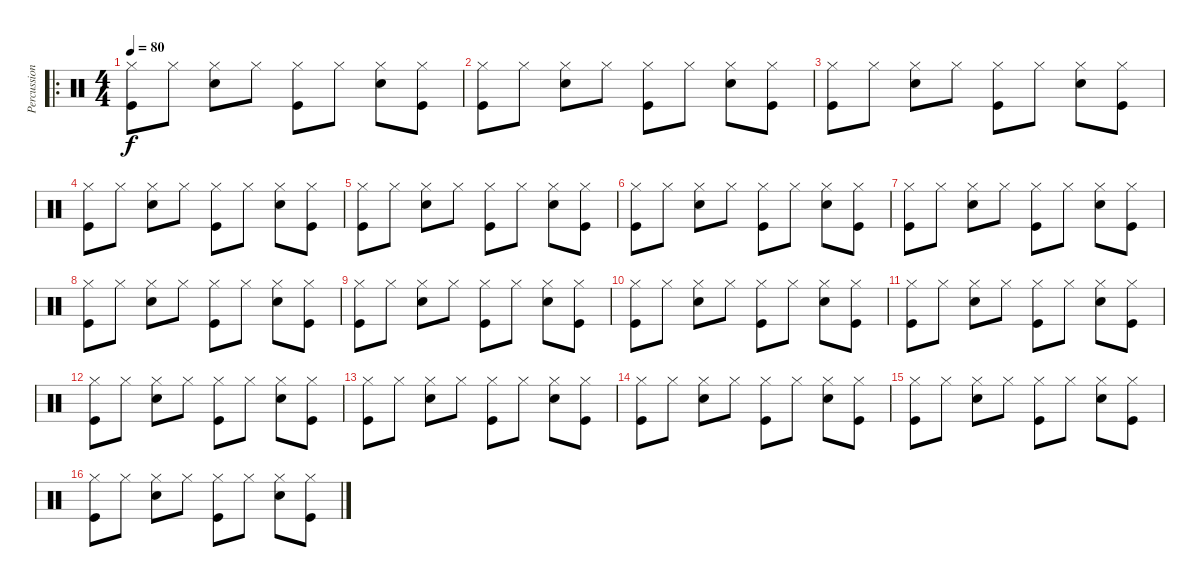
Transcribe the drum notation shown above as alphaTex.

\track ("Percussions" "Percussion") {instrument percussion}
\staff {score}
\articulation defaults
\ro
\ts (4 4)
\tempo 80
\clef neutral
\ks c
("Hi-Hat (closed)" "Kick (hit)").8{dy f} "Hi-Hat (closed)".8 ("Hi-Hat (closed)" "Snare (hit) 2").8 "Hi-Hat (closed)".8 ("Hi-Hat (closed)" "Kick (hit)").8 "Hi-Hat (closed)".8 ("Hi-Hat (closed)" "Snare (hit) 2").8 ("Hi-Hat (closed)" "Kick (hit)").8 |
("Hi-Hat (closed)" "Kick (hit)").8 "Hi-Hat (closed)".8 ("Hi-Hat (closed)" "Snare (hit) 2").8 "Hi-Hat (closed)".8 ("Hi-Hat (closed)" "Kick (hit)").8 "Hi-Hat (closed)".8 ("Hi-Hat (closed)" "Snare (hit) 2").8 ("Hi-Hat (closed)" "Kick (hit)").8 |
("Hi-Hat (closed)" "Kick (hit)").8 "Hi-Hat (closed)".8 ("Hi-Hat (closed)" "Snare (hit) 2").8 "Hi-Hat (closed)".8 ("Hi-Hat (closed)" "Kick (hit)").8 "Hi-Hat (closed)".8 ("Hi-Hat (closed)" "Snare (hit) 2").8 ("Hi-Hat (closed)" "Kick (hit)").8 |
("Hi-Hat (closed)" "Kick (hit)").8 "Hi-Hat (closed)".8 ("Hi-Hat (closed)" "Snare (hit) 2").8 "Hi-Hat (closed)".8 ("Hi-Hat (closed)" "Kick (hit)").8 "Hi-Hat (closed)".8 ("Hi-Hat (closed)" "Snare (hit) 2").8 ("Hi-Hat (closed)" "Kick (hit)").8 |
("Hi-Hat (closed)" "Kick (hit)").8 "Hi-Hat (closed)".8 ("Hi-Hat (closed)" "Snare (hit) 2").8 "Hi-Hat (closed)".8 ("Hi-Hat (closed)" "Kick (hit)").8 "Hi-Hat (closed)".8 ("Hi-Hat (closed)" "Snare (hit) 2").8 ("Hi-Hat (closed)" "Kick (hit)").8 |
("Hi-Hat (closed)" "Kick (hit)").8 "Hi-Hat (closed)".8 ("Hi-Hat (closed)" "Snare (hit) 2").8 "Hi-Hat (closed)".8 ("Hi-Hat (closed)" "Kick (hit)").8 "Hi-Hat (closed)".8 ("Hi-Hat (closed)" "Snare (hit) 2").8 ("Hi-Hat (closed)" "Kick (hit)").8 |
("Hi-Hat (closed)" "Kick (hit)").8 "Hi-Hat (closed)".8 ("Hi-Hat (closed)" "Snare (hit) 2").8 "Hi-Hat (closed)".8 ("Hi-Hat (closed)" "Kick (hit)").8 "Hi-Hat (closed)".8 ("Hi-Hat (closed)" "Snare (hit) 2").8 ("Hi-Hat (closed)" "Kick (hit)").8 |
("Hi-Hat (closed)" "Kick (hit)").8 "Hi-Hat (closed)".8 ("Hi-Hat (closed)" "Snare (hit) 2").8 "Hi-Hat (closed)".8 ("Hi-Hat (closed)" "Kick (hit)").8 "Hi-Hat (closed)".8 ("Hi-Hat (closed)" "Snare (hit) 2").8 ("Hi-Hat (closed)" "Kick (hit)").8 |
("Hi-Hat (closed)" "Kick (hit)").8 "Hi-Hat (closed)".8 ("Hi-Hat (closed)" "Snare (hit) 2").8 "Hi-Hat (closed)".8 ("Hi-Hat (closed)" "Kick (hit)").8 "Hi-Hat (closed)".8 ("Hi-Hat (closed)" "Snare (hit) 2").8 ("Hi-Hat (closed)" "Kick (hit)").8 |
("Hi-Hat (closed)" "Kick (hit)").8 "Hi-Hat (closed)".8 ("Hi-Hat (closed)" "Snare (hit) 2").8 "Hi-Hat (closed)".8 ("Hi-Hat (closed)" "Kick (hit)").8 "Hi-Hat (closed)".8 ("Hi-Hat (closed)" "Snare (hit) 2").8 ("Hi-Hat (closed)" "Kick (hit)").8 |
("Hi-Hat (closed)" "Kick (hit)").8 "Hi-Hat (closed)".8 ("Hi-Hat (closed)" "Snare (hit) 2").8 "Hi-Hat (closed)".8 ("Hi-Hat (closed)" "Kick (hit)").8 "Hi-Hat (closed)".8 ("Hi-Hat (closed)" "Snare (hit) 2").8 ("Hi-Hat (closed)" "Kick (hit)").8 |
("Hi-Hat (closed)" "Kick (hit)").8 "Hi-Hat (closed)".8 ("Hi-Hat (closed)" "Snare (hit) 2").8 "Hi-Hat (closed)".8 ("Hi-Hat (closed)" "Kick (hit)").8 "Hi-Hat (closed)".8 ("Hi-Hat (closed)" "Snare (hit) 2").8 ("Hi-Hat (closed)" "Kick (hit)").8 |
("Hi-Hat (closed)" "Kick (hit)").8 "Hi-Hat (closed)".8 ("Hi-Hat (closed)" "Snare (hit) 2").8 "Hi-Hat (closed)".8 ("Hi-Hat (closed)" "Kick (hit)").8 "Hi-Hat (closed)".8 ("Hi-Hat (closed)" "Snare (hit) 2").8 ("Hi-Hat (closed)" "Kick (hit)").8 |
("Hi-Hat (closed)" "Kick (hit)").8 "Hi-Hat (closed)".8 ("Hi-Hat (closed)" "Snare (hit) 2").8 "Hi-Hat (closed)".8 ("Hi-Hat (closed)" "Kick (hit)").8 "Hi-Hat (closed)".8 ("Hi-Hat (closed)" "Snare (hit) 2").8 ("Hi-Hat (closed)" "Kick (hit)").8 |
("Hi-Hat (closed)" "Kick (hit)").8 "Hi-Hat (closed)".8 ("Hi-Hat (closed)" "Snare (hit) 2").8 "Hi-Hat (closed)".8 ("Hi-Hat (closed)" "Kick (hit)").8 "Hi-Hat (closed)".8 ("Hi-Hat (closed)" "Snare (hit) 2").8 ("Hi-Hat (closed)" "Kick (hit)").8 |
("Hi-Hat (closed)" "Kick (hit)").8 "Hi-Hat (closed)".8 ("Hi-Hat (closed)" "Snare (hit) 2").8 "Hi-Hat (closed)".8 ("Hi-Hat (closed)" "Kick (hit)").8 "Hi-Hat (closed)".8 ("Hi-Hat (closed)" "Snare (hit) 2").8 ("Hi-Hat (closed)" "Kick (hit)").8
